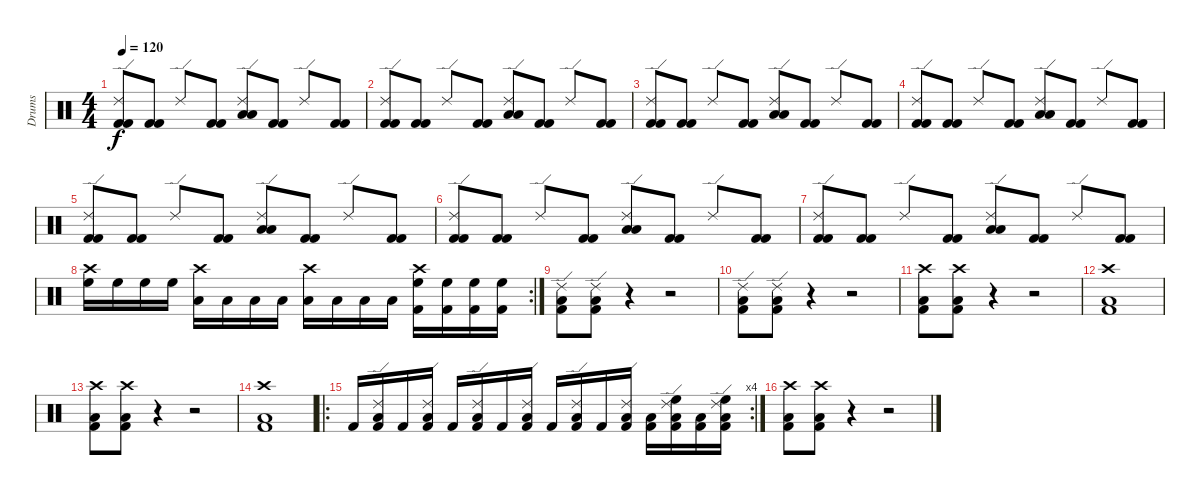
\track ("Drums" "Drums") {instrument percussion}
\staff {score}
\articulation defaults
\ts (4 4)
\tempo 120
\clef neutral
\ks c
("Ride (edge) 2" "Kick (hit) 2" "Kick (hit) 2").8{dy f} ("Kick (hit) 2" "Kick (hit) 2").8 "Ride (edge) 2".8 ("Kick (hit) 2" "Kick (hit) 2").8 ("Ride (edge) 2" "Low Floor Tom (hit)" "Low Tom (hit)").8 ("Kick (hit) 2" "Kick (hit) 2").8 "Ride (edge) 2".8 ("Kick (hit) 2" "Kick (hit) 2").8 |
("Ride (edge) 2" "Kick (hit) 2" "Kick (hit) 2").8 ("Kick (hit) 2" "Kick (hit) 2").8 "Ride (edge) 2".8 ("Kick (hit) 2" "Kick (hit) 2").8 ("Ride (edge) 2" "Low Floor Tom (hit)" "Low Tom (hit)").8 ("Kick (hit) 2" "Kick (hit) 2").8 "Ride (edge) 2".8 ("Kick (hit) 2" "Kick (hit) 2").8 |
("Ride (edge) 2" "Kick (hit) 2" "Kick (hit) 2").8 ("Kick (hit) 2" "Kick (hit) 2").8 "Ride (edge) 2".8 ("Kick (hit) 2" "Kick (hit) 2").8 ("Ride (edge) 2" "Low Floor Tom (hit)" "Low Tom (hit)").8 ("Kick (hit) 2" "Kick (hit) 2").8 "Ride (edge) 2".8 ("Kick (hit) 2" "Kick (hit) 2").8 |
("Ride (edge) 2" "Kick (hit) 2" "Kick (hit) 2").8 ("Kick (hit) 2" "Kick (hit) 2").8 "Ride (edge) 2".8 ("Kick (hit) 2" "Kick (hit) 2").8 ("Ride (edge) 2" "Low Floor Tom (hit)" "Low Tom (hit)").8 ("Kick (hit) 2" "Kick (hit) 2").8 "Ride (edge) 2".8 ("Kick (hit) 2" "Kick (hit) 2").8 |
("Ride (edge) 2" "Kick (hit) 2" "Kick (hit) 2").8 ("Kick (hit) 2" "Kick (hit) 2").8 "Ride (edge) 2".8 ("Kick (hit) 2" "Kick (hit) 2").8 ("Ride (edge) 2" "Low Floor Tom (hit)" "Low Tom (hit)").8 ("Kick (hit) 2" "Kick (hit) 2").8 "Ride (edge) 2".8 ("Kick (hit) 2" "Kick (hit) 2").8 |
("Ride (edge) 2" "Kick (hit) 2" "Kick (hit) 2").8 ("Kick (hit) 2" "Kick (hit) 2").8 "Ride (edge) 2".8 ("Kick (hit) 2" "Kick (hit) 2").8 ("Ride (edge) 2" "Low Floor Tom (hit)" "Low Tom (hit)").8 ("Kick (hit) 2" "Kick (hit) 2").8 "Ride (edge) 2".8 ("Kick (hit) 2" "Kick (hit) 2").8 |
("Ride (edge) 2" "Kick (hit) 2" "Kick (hit) 2").8 ("Kick (hit) 2" "Kick (hit) 2").8 "Ride (edge) 2".8 ("Kick (hit) 2" "Kick (hit) 2").8 ("Ride (edge) 2" "Low Floor Tom (hit)" "Low Tom (hit)").8 ("Kick (hit) 2" "Kick (hit) 2").8 "Ride (edge) 2".8 ("Kick (hit) 2" "Kick (hit) 2").8 |
\rc 2
("Crash high (hit)" "High Floor Tom (hit)").16 "High Floor Tom (hit)".16 "High Floor Tom (hit)".16 "High Floor Tom (hit)".16 ("Crash high (hit)" "Low Floor Tom (hit)").16 "Low Floor Tom (hit)".16 "Low Floor Tom (hit)".16 "Low Floor Tom (hit)".16 ("Crash high (hit)" "Low Tom (hit)").16 "Low Tom (hit)".16 "Low Tom (hit)".16 "Low Tom (hit)".16 ("Crash high (hit)" "High Floor Tom (hit)" "Kick (hit) 2").16 ("High Floor Tom (hit)" "Kick (hit) 2").16 ("High Floor Tom (hit)" "Kick (hit) 2").16 ("High Floor Tom (hit)" "Kick (hit) 2").16 |
("Ride (edge) 2" "Low Tom (hit)" "Kick (hit) 2").8 ("Ride (edge) 2" "Low Tom (hit)" "Kick (hit) 2").8 r.4 r.2 |
("Ride (edge) 2" "Low Tom (hit)" "Kick (hit) 2").8 ("Ride (edge) 2" "Low Tom (hit)" "Kick (hit) 2").8 r.4 r.2 |
("Crash high (hit)" "Low Tom (hit)" "Kick (hit) 2").8 ("Crash high (hit)" "Low Tom (hit)" "Kick (hit) 2").8 r.4 r.2 |
("Crash high (hit)" "Low Tom (hit)" "Kick (hit) 2").1 |
("Crash high (hit)" "Low Tom (hit)" "Kick (hit) 2").8 ("Crash high (hit)" "Low Tom (hit)" "Kick (hit) 2").8 r.4 r.2 |
("Crash high (hit)" "Low Tom (hit)" "Kick (hit) 2").1 |
\ro
\rc 4 "Kick (hit) 2".16
("Ride (edge) 2" "Low Tom (hit)" "Kick (hit) 2").16 "Kick (hit) 2".16 ("Ride (edge) 2" "Low Tom (hit)" "Kick (hit) 2").16 "Kick (hit) 2".16 ("Ride (edge) 2" "Low Tom (hit)" "Kick (hit) 2").16 "Kick (hit) 2".16 ("Ride (edge) 2" "Low Tom (hit)" "Kick (hit) 2").16 "Kick (hit) 2".16 ("Ride (edge) 2" "Low Tom (hit)" "Kick (hit) 2").16 "Kick (hit) 2".16 ("Ride (edge) 2" "Low Tom (hit)" "Kick (hit) 2").16 ("Low Floor Tom (hit)" "Kick (hit) 2").16 ("Ride (edge) 2" "High Floor Tom (hit)" "Low Floor Tom (hit)" "Kick (hit) 2").16 ("Low Floor Tom (hit)" "Kick (hit) 2").16 ("Ride (edge) 2" "High Floor Tom (hit)" "Low Floor Tom (hit)" "Kick (hit) 2").16 |
("Crash high (hit)" "Low Tom (hit)" "Kick (hit) 2").8 ("Crash high (hit)" "Low Tom (hit)" "Kick (hit) 2").8 r.4 r.2
